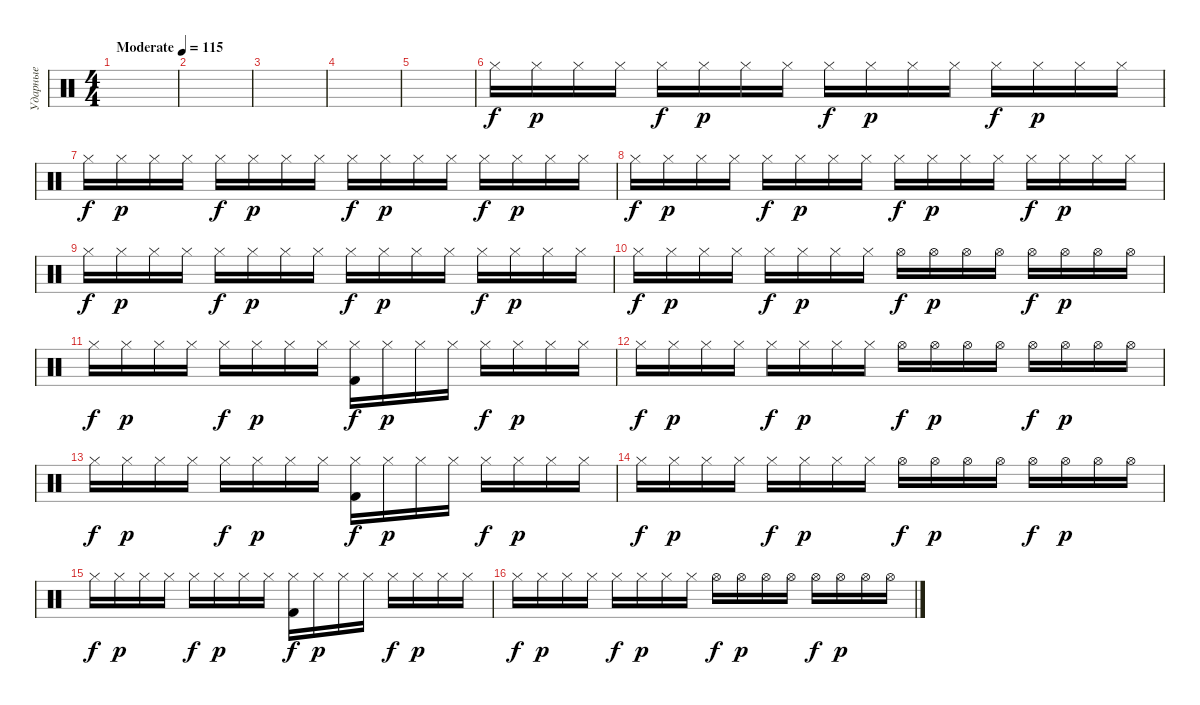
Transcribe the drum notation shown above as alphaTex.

\track ("Ударные" "Ударные") {instrument percussion}
\staff {score}
\articulation defaults
\ts (4 4)
\tempo (115 "Moderate")
\clef neutral
\ks c
|
|
|
|
|
"Hi-Hat (closed)".16 "Hi-Hat (closed)".16{dy p} "Hi-Hat (closed)".16 "Hi-Hat (closed)".16 "Hi-Hat (closed)".16{dy f} "Hi-Hat (closed)".16{dy p} "Hi-Hat (closed)".16 "Hi-Hat (closed)".16 "Hi-Hat (closed)".16{dy f} "Hi-Hat (closed)".16{dy p} "Hi-Hat (closed)".16 "Hi-Hat (closed)".16 "Hi-Hat (closed)".16{dy f} "Hi-Hat (closed)".16{dy p} "Hi-Hat (closed)".16 "Hi-Hat (closed)".16 |
"Hi-Hat (closed)".16{dy f} "Hi-Hat (closed)".16{dy p} "Hi-Hat (closed)".16 "Hi-Hat (closed)".16 "Hi-Hat (closed)".16{dy f} "Hi-Hat (closed)".16{dy p} "Hi-Hat (closed)".16 "Hi-Hat (closed)".16 "Hi-Hat (closed)".16{dy f} "Hi-Hat (closed)".16{dy p} "Hi-Hat (closed)".16 "Hi-Hat (closed)".16 "Hi-Hat (closed)".16{dy f} "Hi-Hat (closed)".16{dy p} "Hi-Hat (closed)".16 "Hi-Hat (closed)".16 |
"Hi-Hat (closed)".16{dy f} "Hi-Hat (closed)".16{dy p} "Hi-Hat (closed)".16 "Hi-Hat (closed)".16 "Hi-Hat (closed)".16{dy f} "Hi-Hat (closed)".16{dy p} "Hi-Hat (closed)".16 "Hi-Hat (closed)".16 "Hi-Hat (closed)".16{dy f} "Hi-Hat (closed)".16{dy p} "Hi-Hat (closed)".16 "Hi-Hat (closed)".16 "Hi-Hat (closed)".16{dy f} "Hi-Hat (closed)".16{dy p} "Hi-Hat (closed)".16 "Hi-Hat (closed)".16 |
"Hi-Hat (closed)".16{dy f} "Hi-Hat (closed)".16{dy p} "Hi-Hat (closed)".16 "Hi-Hat (closed)".16 "Hi-Hat (closed)".16{dy f} "Hi-Hat (closed)".16{dy p} "Hi-Hat (closed)".16 "Hi-Hat (closed)".16 "Hi-Hat (closed)".16{dy f} "Hi-Hat (closed)".16{dy p} "Hi-Hat (closed)".16 "Hi-Hat (closed)".16 "Hi-Hat (closed)".16{dy f} "Hi-Hat (closed)".16{dy p} "Hi-Hat (closed)".16 "Hi-Hat (closed)".16 |
"Hi-Hat (closed)".16{dy f} "Hi-Hat (closed)".16{dy p} "Hi-Hat (closed)".16 "Hi-Hat (closed)".16 "Hi-Hat (closed)".16{dy f} "Hi-Hat (closed)".16{dy p} "Hi-Hat (closed)".16 "Hi-Hat (closed)".16 "Hi-Hat (open)".16{dy f} "Hi-Hat (open)".16{dy p} "Hi-Hat (open)".16 "Hi-Hat (open)".16 "Hi-Hat (open)".16{dy f} "Hi-Hat (open)".16{dy p} "Hi-Hat (open)".16 "Hi-Hat (open)".16 |
"Hi-Hat (closed)".16{dy f} "Hi-Hat (closed)".16{dy p} "Hi-Hat (closed)".16 "Hi-Hat (closed)".16 "Hi-Hat (closed)".16{dy f} "Hi-Hat (closed)".16{dy p} "Hi-Hat (closed)".16 "Hi-Hat (closed)".16 ("Hi-Hat (closed)" "Kick (hit) 2").16{dy f} "Hi-Hat (closed)".16{dy p} "Hi-Hat (closed)".16 "Hi-Hat (closed)".16 "Hi-Hat (closed)".16{dy f} "Hi-Hat (closed)".16{dy p} "Hi-Hat (closed)".16 "Hi-Hat (closed)".16 |
"Hi-Hat (closed)".16{dy f} "Hi-Hat (closed)".16{dy p} "Hi-Hat (closed)".16 "Hi-Hat (closed)".16 "Hi-Hat (closed)".16{dy f} "Hi-Hat (closed)".16{dy p} "Hi-Hat (closed)".16 "Hi-Hat (closed)".16 "Hi-Hat (open)".16{dy f} "Hi-Hat (open)".16{dy p} "Hi-Hat (open)".16 "Hi-Hat (open)".16 "Hi-Hat (open)".16{dy f} "Hi-Hat (open)".16{dy p} "Hi-Hat (open)".16 "Hi-Hat (open)".16 |
"Hi-Hat (closed)".16{dy f} "Hi-Hat (closed)".16{dy p} "Hi-Hat (closed)".16 "Hi-Hat (closed)".16 "Hi-Hat (closed)".16{dy f} "Hi-Hat (closed)".16{dy p} "Hi-Hat (closed)".16 "Hi-Hat (closed)".16 ("Hi-Hat (closed)" "Kick (hit) 2").16{dy f} "Hi-Hat (closed)".16{dy p} "Hi-Hat (closed)".16 "Hi-Hat (closed)".16 "Hi-Hat (closed)".16{dy f} "Hi-Hat (closed)".16{dy p} "Hi-Hat (closed)".16 "Hi-Hat (closed)".16 |
"Hi-Hat (closed)".16{dy f} "Hi-Hat (closed)".16{dy p} "Hi-Hat (closed)".16 "Hi-Hat (closed)".16 "Hi-Hat (closed)".16{dy f} "Hi-Hat (closed)".16{dy p} "Hi-Hat (closed)".16 "Hi-Hat (closed)".16 "Hi-Hat (open)".16{dy f} "Hi-Hat (open)".16{dy p} "Hi-Hat (open)".16 "Hi-Hat (open)".16 "Hi-Hat (open)".16{dy f} "Hi-Hat (open)".16{dy p} "Hi-Hat (open)".16 "Hi-Hat (open)".16 |
"Hi-Hat (closed)".16{dy f} "Hi-Hat (closed)".16{dy p} "Hi-Hat (closed)".16 "Hi-Hat (closed)".16 "Hi-Hat (closed)".16{dy f} "Hi-Hat (closed)".16{dy p} "Hi-Hat (closed)".16 "Hi-Hat (closed)".16 ("Hi-Hat (closed)" "Kick (hit) 2").16{dy f} "Hi-Hat (closed)".16{dy p} "Hi-Hat (closed)".16 "Hi-Hat (closed)".16 "Hi-Hat (closed)".16{dy f} "Hi-Hat (closed)".16{dy p} "Hi-Hat (closed)".16 "Hi-Hat (closed)".16 |
"Hi-Hat (closed)".16{dy f} "Hi-Hat (closed)".16{dy p} "Hi-Hat (closed)".16 "Hi-Hat (closed)".16 "Hi-Hat (closed)".16{dy f} "Hi-Hat (closed)".16{dy p} "Hi-Hat (closed)".16 "Hi-Hat (closed)".16 "Hi-Hat (open)".16{dy f} "Hi-Hat (open)".16{dy p} "Hi-Hat (open)".16 "Hi-Hat (open)".16 "Hi-Hat (open)".16{dy f} "Hi-Hat (open)".16{dy p} "Hi-Hat (open)".16 "Hi-Hat (open)".16
